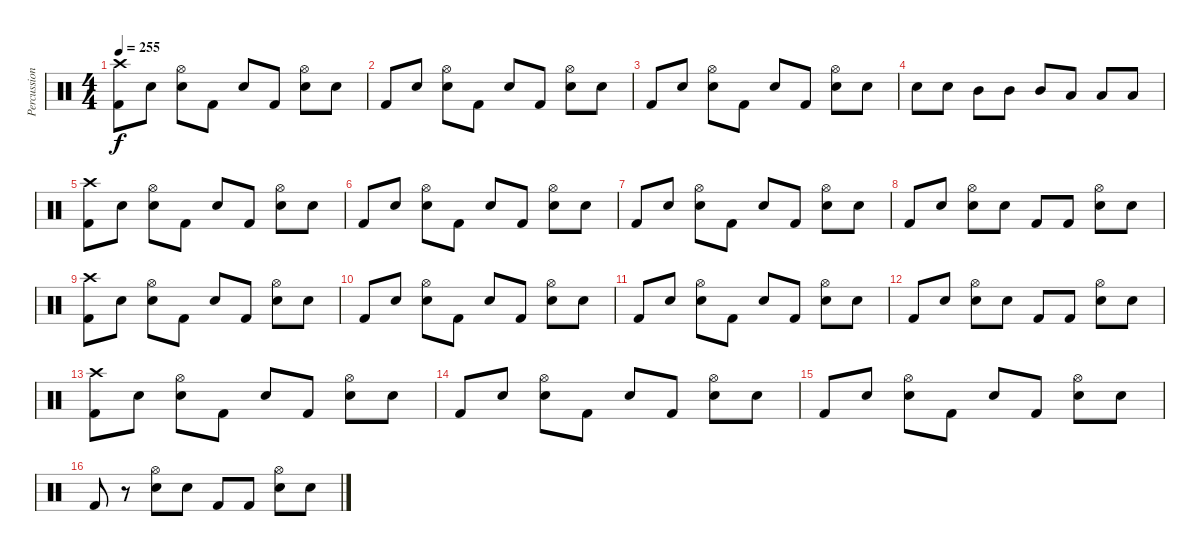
\track ("Percussion" "Percussion") {instrument percussion}
\staff {score}
\articulation defaults
\ts (4 4)
\tempo 255
\clef neutral
\ks c
("Kick (hit) 2" "Crash high (hit)").8{dy f} "Snare (hit)".8 ("Snare (hit) 2" "Hi-Hat (open)").8 "Kick (hit) 2".8 "Snare (hit)".8 "Kick (hit) 2".8 ("Snare (hit) 2" "Hi-Hat (open)").8 "Snare (hit)".8 |
"Kick (hit) 2".8 "Snare (hit)".8 ("Snare (hit) 2" "Hi-Hat (open)").8 "Kick (hit) 2".8 "Snare (hit)".8 "Kick (hit) 2".8 ("Snare (hit) 2" "Hi-Hat (open)").8 "Snare (hit)".8 |
"Kick (hit) 2".8 "Snare (hit)".8 ("Snare (hit) 2" "Hi-Hat (open)").8 "Kick (hit) 2".8 "Snare (hit)".8 "Kick (hit) 2".8 ("Snare (hit) 2" "Hi-Hat (open)").8 "Snare (hit) 2".8 |
"Snare (hit) 2".8 "Snare (hit) 2".8 "Mid Tom (hit)".8 "Mid Tom (hit)".8 "Mid Tom (hit)".8 "Low Tom (hit)".8 "Low Tom (hit)".8 "Low Tom (hit)".8 |
("Kick (hit) 2" "Crash high (hit)").8 "Snare (hit)".8 ("Snare (hit) 2" "Hi-Hat (open)").8 "Kick (hit) 2".8 "Snare (hit)".8 "Kick (hit) 2".8 ("Snare (hit) 2" "Hi-Hat (open)").8 "Snare (hit)".8 |
"Kick (hit) 2".8 "Snare (hit)".8 ("Snare (hit) 2" "Hi-Hat (open)").8 "Kick (hit) 2".8 "Snare (hit)".8 "Kick (hit) 2".8 ("Snare (hit) 2" "Hi-Hat (open)").8 "Snare (hit)".8 |
"Kick (hit) 2".8 "Snare (hit)".8 ("Snare (hit) 2" "Hi-Hat (open)").8 "Kick (hit) 2".8 "Snare (hit)".8 "Kick (hit) 2".8 ("Snare (hit) 2" "Hi-Hat (open)").8 "Snare (hit)".8 |
"Kick (hit) 2".8 "Snare (hit)".8 ("Snare (hit) 2" "Hi-Hat (open)").8 "Snare (hit)".8 "Kick (hit) 2".8 "Kick (hit) 2".8 ("Snare (hit) 2" "Hi-Hat (open)").8 "Snare (hit)".8 |
("Kick (hit) 2" "Crash high (hit)").8 "Snare (hit)".8 ("Snare (hit) 2" "Hi-Hat (open)").8 "Kick (hit) 2".8 "Snare (hit)".8 "Kick (hit) 2".8 ("Snare (hit) 2" "Hi-Hat (open)").8 "Snare (hit)".8 |
"Kick (hit) 2".8 "Snare (hit)".8 ("Snare (hit) 2" "Hi-Hat (open)").8 "Kick (hit) 2".8 "Snare (hit)".8 "Kick (hit) 2".8 ("Snare (hit) 2" "Hi-Hat (open)").8 "Snare (hit)".8 |
"Kick (hit) 2".8 "Snare (hit)".8 ("Snare (hit) 2" "Hi-Hat (open)").8 "Kick (hit) 2".8 "Snare (hit)".8 "Kick (hit) 2".8 ("Snare (hit) 2" "Hi-Hat (open)").8 "Snare (hit)".8 |
"Kick (hit) 2".8 "Snare (hit)".8 ("Snare (hit) 2" "Hi-Hat (open)").8 "Snare (hit)".8 "Kick (hit) 2".8 "Kick (hit) 2".8 ("Snare (hit) 2" "Hi-Hat (open)").8 "Snare (hit)".8 |
("Kick (hit) 2" "Crash high (hit)").8 "Snare (hit)".8 ("Snare (hit) 2" "Hi-Hat (open)").8 "Kick (hit) 2".8 "Snare (hit)".8 "Kick (hit) 2".8 ("Snare (hit) 2" "Hi-Hat (open)").8 "Snare (hit)".8 |
"Kick (hit) 2".8 "Snare (hit)".8 ("Snare (hit) 2" "Hi-Hat (open)").8 "Kick (hit) 2".8 "Snare (hit)".8 "Kick (hit) 2".8 ("Snare (hit) 2" "Hi-Hat (open)").8 "Snare (hit)".8 |
"Kick (hit) 2".8 "Snare (hit)".8 ("Snare (hit) 2" "Hi-Hat (open)").8 "Kick (hit) 2".8 "Snare (hit)".8 "Kick (hit) 2".8 ("Snare (hit) 2" "Hi-Hat (open)").8 "Snare (hit)".8 |
"Kick (hit) 2".8 r.8 ("Snare (hit) 2" "Hi-Hat (open)").8 "Snare (hit)".8 "Kick (hit) 2".8 "Kick (hit) 2".8 ("Snare (hit) 2" "Hi-Hat (open)").8 "Snare (hit)".8
